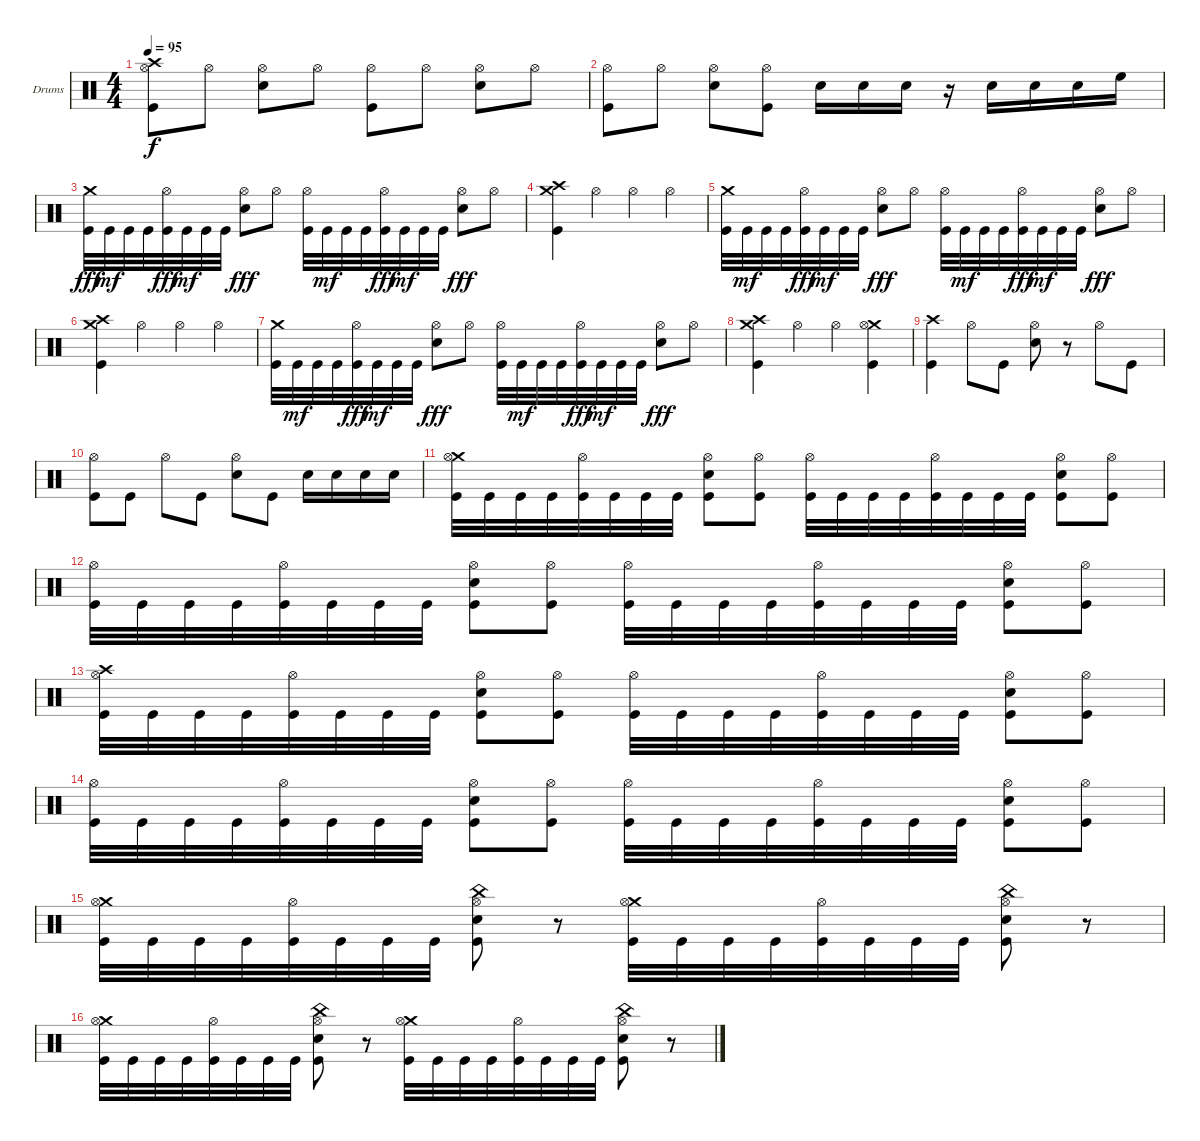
\bracketExtendMode groupsimilarinstruments
\firstSystemTrackNameOrientation horizontal
\otherSystemsTrackNameOrientation horizontal
\track ("Drumkit" "Drums") {solo instrument percussion}
\staff {score}
\articulation defaults
\ts (4 4)
\tempo 95
\clef neutral
\scale
0.5
\ks c
("Crash high (hit)" "Hi-Hat (open)" "Kick (hit)").8{dy f} "Hi-Hat (open)".8 ("Hi-Hat (open)" "Snare (hit) 2").8 "Hi-Hat (open)".8 ("Hi-Hat (open)" "Kick (hit)").8 "Hi-Hat (open)".8 ("Hi-Hat (open)" "Snare (hit) 2").8 "Hi-Hat (open)".8 |
\scale
0.5 ("Hi-Hat (open)" "Kick (hit)").8 "Hi-Hat (open)".8 ("Hi-Hat (open)" "Snare (hit) 2").8 ("Hi-Hat (open)" "Kick (hit)").8 "Snare (hit) 2".16 "Snare (hit) 2".16 "Snare (hit) 2".16 r.16 "Snare (hit) 2".16 "Snare (hit) 2".16 "Snare (hit) 2".16 "High Floor Tom (hit)".16 |
\scale
0.5 ("Crash medium (hit)" "Kick (hit)").32{dy fff} "Kick (hit)".32{dy mf} "Kick (hit)".32 "Kick (hit)".32 ("Hi-Hat (open)" "Kick (hit)").32{dy fff} "Kick (hit)".32{dy mf} "Kick (hit)".32 "Kick (hit)".32 ("Hi-Hat (open)" "Snare (hit) 2").8{dy fff} "Hi-Hat (open)".8 ("Hi-Hat (open)" "Kick (hit)").32 "Kick (hit)".32{dy mf} "Kick (hit)".32 "Kick (hit)".32 ("Hi-Hat (open)" "Kick (hit)").32{dy fff} "Kick (hit)".32{dy mf} "Kick (hit)".32 "Kick (hit)".32 ("Hi-Hat (open)" "Snare (hit) 2").8{dy fff} "Hi-Hat (open)".8 |
\scale
0.5 ("Crash medium (hit)" "Crash high (hit)" "Kick (hit)").4 "Hi-Hat (open)".4 "Hi-Hat (open)".4 "Hi-Hat (open)".4 |
\scale
0.5 ("Crash medium (hit)" "Kick (hit)").32 "Kick (hit)".32{dy mf} "Kick (hit)".32 "Kick (hit)".32 ("Hi-Hat (open)" "Kick (hit)").32{dy fff} "Kick (hit)".32{dy mf} "Kick (hit)".32 "Kick (hit)".32 ("Hi-Hat (open)" "Snare (hit) 2").8{dy fff} "Hi-Hat (open)".8 ("Hi-Hat (open)" "Kick (hit)").32 "Kick (hit)".32{dy mf} "Kick (hit)".32 "Kick (hit)".32 ("Hi-Hat (open)" "Kick (hit)").32{dy fff} "Kick (hit)".32{dy mf} "Kick (hit)".32 "Kick (hit)".32 ("Hi-Hat (open)" "Snare (hit) 2").8{dy fff} "Hi-Hat (open)".8 |
\scale
0.5 ("Crash medium (hit)" "Crash high (hit)" "Kick (hit)").4 "Hi-Hat (open)".4 "Hi-Hat (open)".4 "Hi-Hat (open)".4 |
\scale
0.5 ("Crash medium (hit)" "Kick (hit)").32 "Kick (hit)".32{dy mf} "Kick (hit)".32 "Kick (hit)".32 ("Hi-Hat (open)" "Kick (hit)").32{dy fff} "Kick (hit)".32{dy mf} "Kick (hit)".32 "Kick (hit)".32 ("Hi-Hat (open)" "Snare (hit) 2").8{dy fff} "Hi-Hat (open)".8 ("Hi-Hat (open)" "Kick (hit)").32 "Kick (hit)".32{dy mf} "Kick (hit)".32 "Kick (hit)".32 ("Hi-Hat (open)" "Kick (hit)").32{dy fff} "Kick (hit)".32{dy mf} "Kick (hit)".32 "Kick (hit)".32 ("Hi-Hat (open)" "Snare (hit) 2").8{dy fff} "Hi-Hat (open)".8 |
\scale
0.5 ("Crash medium (hit)" "Crash high (hit)" "Kick (hit)").4 "Hi-Hat (open)".4 "Hi-Hat (open)".4 ("Crash medium (hit)" "Hi-Hat (open)" "Kick (hit)").4 |
\scale
0.5 ("Crash high (hit)" "Kick (hit)").4 "Hi-Hat (open)".8 "Kick (hit)".8 ("Snare (hit) 2" "Hi-Hat (open)").8 r.8 "Hi-Hat (open)".8 "Kick (hit)".8 |
\scale
0.5 ("Hi-Hat (open)" "Kick (hit)").8 "Kick (hit)".8 "Hi-Hat (open)".8 "Kick (hit)".8 ("Hi-Hat (open)" "Snare (hit) 2").8 "Kick (hit)".8 "Snare (hit) 2".16 "Snare (hit) 2".16 "Snare (hit) 2".16 "Snare (hit) 2".16 |
\scale
0.5 ("Crash medium (hit)" "Hi-Hat (open)" "Kick (hit)").32 "Kick (hit)".32 "Kick (hit)".32 "Kick (hit)".32 ("Hi-Hat (open)" "Kick (hit)").32 "Kick (hit)".32 "Kick (hit)".32 "Kick (hit)".32 ("Hi-Hat (open)" "Snare (hit) 2" "Kick (hit)").8 ("Hi-Hat (open)" "Kick (hit)").8 ("Hi-Hat (open)" "Kick (hit)").32 "Kick (hit)".32 "Kick (hit)".32 "Kick (hit)".32 ("Hi-Hat (open)" "Kick (hit)").32 "Kick (hit)".32 "Kick (hit)".32 "Kick (hit)".32 ("Hi-Hat (open)" "Snare (hit) 2" "Kick (hit)").8 ("Hi-Hat (open)" "Kick (hit)").8 |
\scale
0.5 ("Hi-Hat (open)" "Kick (hit)").32 "Kick (hit)".32 "Kick (hit)".32 "Kick (hit)".32 ("Hi-Hat (open)" "Kick (hit)").32 "Kick (hit)".32 "Kick (hit)".32 "Kick (hit)".32 ("Hi-Hat (open)" "Snare (hit) 2" "Kick (hit)").8 ("Hi-Hat (open)" "Kick (hit)").8 ("Hi-Hat (open)" "Kick (hit)").32 "Kick (hit)".32 "Kick (hit)".32 "Kick (hit)".32 ("Hi-Hat (open)" "Kick (hit)").32 "Kick (hit)".32 "Kick (hit)".32 "Kick (hit)".32 ("Hi-Hat (open)" "Snare (hit) 2" "Kick (hit)").8 ("Hi-Hat (open)" "Kick (hit)").8 |
\scale
0.5 ("Crash high (hit)" "Hi-Hat (open)" "Kick (hit)").32 "Kick (hit)".32 "Kick (hit)".32 "Kick (hit)".32 ("Hi-Hat (open)" "Kick (hit)").32 "Kick (hit)".32 "Kick (hit)".32 "Kick (hit)".32 ("Hi-Hat (open)" "Snare (hit) 2" "Kick (hit)").8 ("Hi-Hat (open)" "Kick (hit)").8 ("Hi-Hat (open)" "Kick (hit)").32 "Kick (hit)".32 "Kick (hit)".32 "Kick (hit)".32 ("Hi-Hat (open)" "Kick (hit)").32 "Kick (hit)".32 "Kick (hit)".32 "Kick (hit)".32 ("Hi-Hat (open)" "Snare (hit) 2" "Kick (hit)").8 ("Hi-Hat (open)" "Kick (hit)").8 |
\scale
0.5 ("Hi-Hat (open)" "Kick (hit)").32 "Kick (hit)".32 "Kick (hit)".32 "Kick (hit)".32 ("Hi-Hat (open)" "Kick (hit)").32 "Kick (hit)".32 "Kick (hit)".32 "Kick (hit)".32 ("Hi-Hat (open)" "Snare (hit) 2" "Kick (hit)").8 ("Hi-Hat (open)" "Kick (hit)").8 ("Hi-Hat (open)" "Kick (hit)").32 "Kick (hit)".32 "Kick (hit)".32 "Kick (hit)".32 ("Hi-Hat (open)" "Kick (hit)").32 "Kick (hit)".32 "Kick (hit)".32 "Kick (hit)".32 ("Hi-Hat (open)" "Snare (hit) 2" "Kick (hit)").8 ("Hi-Hat (open)" "Kick (hit)").8 |
\scale
0.5 ("Crash medium (hit)" "Hi-Hat (open)" "Kick (hit)").32 "Kick (hit)".32 "Kick (hit)".32 "Kick (hit)".32 ("Hi-Hat (open)" "Kick (hit)").32 "Kick (hit)".32 "Kick (hit)".32 "Kick (hit)".32 ("China (hit)" "Hi-Hat (open)" "Snare (hit) 2" "Kick (hit)").8 r.8 ("Crash medium (hit)" "Hi-Hat (open)" "Kick (hit)").32 "Kick (hit)".32 "Kick (hit)".32 "Kick (hit)".32 ("Hi-Hat (open)" "Kick (hit)").32 "Kick (hit)".32 "Kick (hit)".32 "Kick (hit)".32 ("China (hit)" "Hi-Hat (open)" "Snare (hit) 2" "Kick (hit)").8 r.8 |
\scale
0.5 ("Crash medium (hit)" "Hi-Hat (open)" "Kick (hit)").32 "Kick (hit)".32 "Kick (hit)".32 "Kick (hit)".32 ("Hi-Hat (open)" "Kick (hit)").32 "Kick (hit)".32 "Kick (hit)".32 "Kick (hit)".32 ("China (hit)" "Hi-Hat (open)" "Snare (hit) 2" "Kick (hit)").8 r.8 ("Crash medium (hit)" "Hi-Hat (open)" "Kick (hit)").32 "Kick (hit)".32 "Kick (hit)".32 "Kick (hit)".32 ("Hi-Hat (open)" "Kick (hit)").32 "Kick (hit)".32 "Kick (hit)".32 "Kick (hit)".32 ("China (hit)" "Hi-Hat (open)" "Snare (hit) 2" "Kick (hit)").8 r.8
